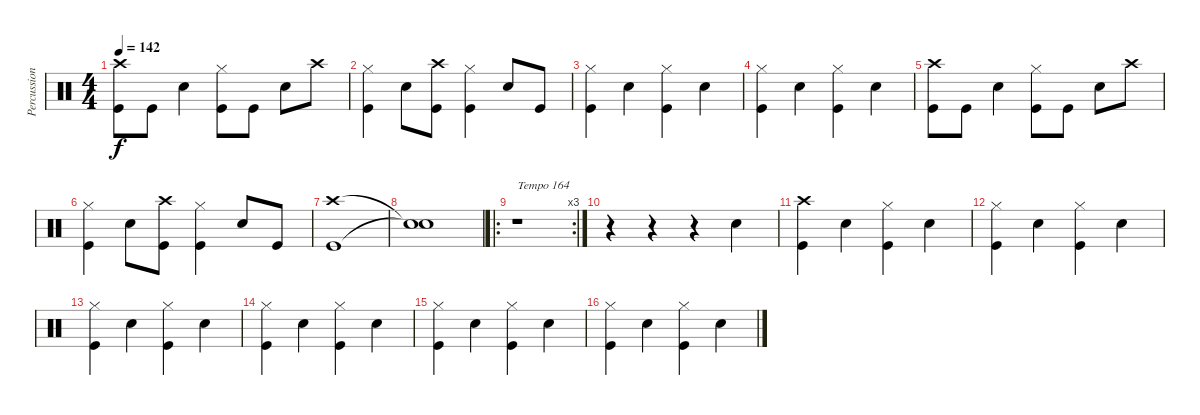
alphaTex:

\track ("Percussion" "Percussion") {instrument percussion}
\staff {score}
\articulation defaults
\ts (4 4)
\tempo 142
\clef neutral
\ks c
("Crash high (hit)" "Kick (hit)").8{dy f} "Kick (hit)".8 "Snare (hit) 2".4 ("Hi-Hat (closed)" "Kick (hit)").8 "Kick (hit)".8 "Snare (hit) 2".8 "Crash high (hit)".8 |
("Hi-Hat (closed)" "Kick (hit)").4 "Snare (hit) 2".8 ("Crash high (hit)" "Kick (hit)").8 ("Hi-Hat (closed)" "Kick (hit)").4 "Snare (hit) 2".8 "Kick (hit)".8 |
("Hi-Hat (closed)" "Kick (hit)").4 "Snare (hit) 2".4 ("Hi-Hat (closed)" "Kick (hit)").4 "Snare (hit) 2".4 |
("Hi-Hat (closed)" "Kick (hit)").4 "Snare (hit) 2".4 ("Hi-Hat (closed)" "Kick (hit)").4 "Snare (hit) 2".4 |
("Crash high (hit)" "Kick (hit)").8 "Kick (hit)".8 "Snare (hit) 2".4 ("Hi-Hat (closed)" "Kick (hit)").8 "Kick (hit)".8 "Snare (hit) 2".8 "Crash high (hit)".8 |
("Hi-Hat (closed)" "Kick (hit)").4 "Snare (hit) 2".8 ("Crash high (hit)" "Kick (hit)").8 ("Hi-Hat (closed)" "Kick (hit)").4 "Snare (hit) 2".8 "Kick (hit)".8 |
("Crash high (hit)" "Kick (hit)").1 |
("Snare (hit)"{t} "Snare (hit)"{t}).1 |
\ro
\rc 3
r.1{txt "Tempo 164"} |
r.4 r.4 r.4 "Snare (hit) 2".4 |
("Crash high (hit)" "Kick (hit)").4 "Snare (hit) 2".4 ("Hi-Hat (closed)" "Kick (hit)").4 "Snare (hit) 2".4 |
("Hi-Hat (closed)" "Kick (hit)").4 "Snare (hit) 2".4 ("Hi-Hat (closed)" "Kick (hit)").4 "Snare (hit) 2".4 |
("Hi-Hat (closed)" "Kick (hit)").4 "Snare (hit) 2".4 ("Hi-Hat (closed)" "Kick (hit)").4 "Snare (hit) 2".4 |
("Hi-Hat (closed)" "Kick (hit)").4 "Snare (hit) 2".4 ("Hi-Hat (closed)" "Kick (hit)").4 "Snare (hit) 2".4 |
("Hi-Hat (closed)" "Kick (hit)").4 "Snare (hit) 2".4 ("Hi-Hat (closed)" "Kick (hit)").4 "Snare (hit) 2".4 |
("Hi-Hat (closed)" "Kick (hit)").4 "Snare (hit) 2".4 ("Hi-Hat (closed)" "Kick (hit)").4 "Snare (hit) 2".4
